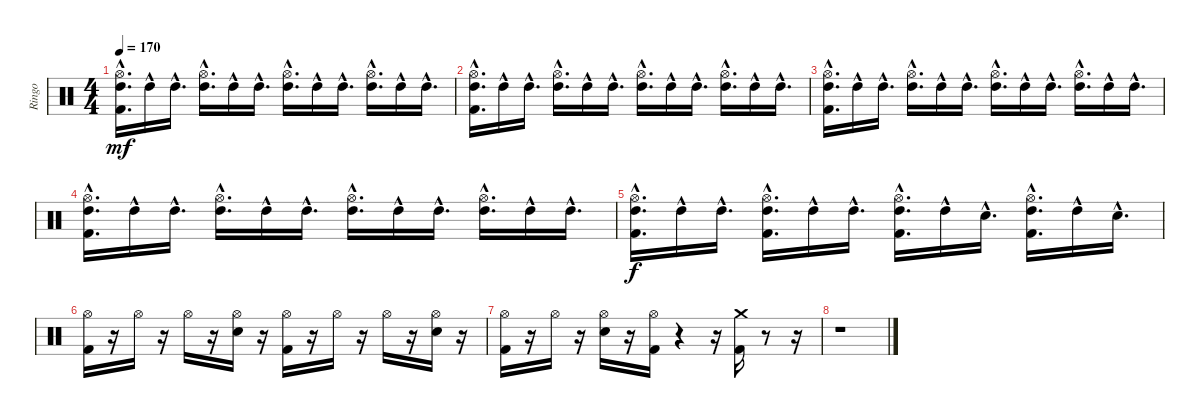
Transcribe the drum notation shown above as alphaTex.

\track ("Ringo" "Ringo") {instrument percussion}
\staff {score}
\articulation defaults
\ts (4 4)
\tempo 170
\clef neutral
\ks c
("High Tom (hit)"{hac} "Kick (hit) 2"{hac} "Hi-Hat (open)"{hac}).16{d dy mf} "High Tom (hit)"{hac}.16 "High Tom (hit)"{hac}.16{d} ("High Tom (hit)"{hac} "Hi-Hat (open)"{hac}).16{d} "High Tom (hit)"{hac}.16 "High Tom (hit)"{hac}.16{d} ("High Tom (hit)"{hac} "Hi-Hat (open)"{hac}).16{d} "High Tom (hit)"{hac}.16 "High Tom (hit)"{hac}.16{d} ("High Tom (hit)"{hac} "Hi-Hat (open)"{hac}).16{d} "High Tom (hit)"{hac}.16 "High Tom (hit)"{hac}.16{d} |
("High Tom (hit)"{hac} "Kick (hit) 2"{hac} "Hi-Hat (open)"{hac}).16{d} "High Tom (hit)"{hac}.16 "High Tom (hit)"{hac}.16{d} ("High Tom (hit)"{hac} "Hi-Hat (open)"{hac}).16{d} "High Tom (hit)"{hac}.16 "High Tom (hit)"{hac}.16{d} ("High Tom (hit)"{hac} "Hi-Hat (open)"{hac}).16{d} "High Tom (hit)"{hac}.16 "High Tom (hit)"{hac}.16{d} ("High Tom (hit)"{hac} "Hi-Hat (open)"{hac}).16{d} "High Tom (hit)"{hac}.16 "High Tom (hit)"{hac}.16{d} |
("High Tom (hit)"{hac} "Kick (hit) 2"{hac} "Hi-Hat (open)"{hac}).16{d} "High Tom (hit)"{hac}.16 "High Tom (hit)"{hac}.16{d} ("High Tom (hit)"{hac} "Hi-Hat (open)"{hac}).16{d} "High Tom (hit)"{hac}.16 "High Tom (hit)"{hac}.16{d} ("High Tom (hit)"{hac} "Hi-Hat (open)"{hac}).16{d} "High Tom (hit)"{hac}.16 "High Tom (hit)"{hac}.16{d} ("High Tom (hit)"{hac} "Hi-Hat (open)"{hac}).16{d} "High Tom (hit)"{hac}.16 "High Tom (hit)"{hac}.16{d} |
("High Tom (hit)"{hac} "Kick (hit) 2"{hac} "Hi-Hat (open)"{hac}).16{d} "High Tom (hit)"{hac}.16 "High Tom (hit)"{hac}.16{d} ("High Tom (hit)"{hac} "Hi-Hat (open)"{hac}).16{d} "High Tom (hit)"{hac}.16 "High Tom (hit)"{hac}.16{d} ("High Tom (hit)"{hac} "Hi-Hat (open)"{hac}).16{d} "High Tom (hit)"{hac}.16 "High Tom (hit)"{hac}.16{d} ("High Tom (hit)"{hac} "Hi-Hat (open)"{hac}).16{d} "High Tom (hit)"{hac}.16 "High Tom (hit)"{hac}.16{d} |
("High Tom (hit)"{hac} "Kick (hit) 2"{hac} "Hi-Hat (open)"{hac}).16{d dy f} "High Tom (hit)"{hac}.16 "High Tom (hit)"{hac}.16{d} ("High Tom (hit)"{hac} "Hi-Hat (open)"{hac} "Kick (hit) 2"{hac}).16{d} "High Tom (hit)"{hac}.16 "High Tom (hit)"{hac}.16{d} ("High Tom (hit)"{hac} "Hi-Hat (open)"{hac} "Kick (hit) 2"{hac}).16{d} "High Tom (hit)"{hac}.16 "Snare (hit) 2"{hac}.16{d} ("High Tom (hit)"{hac} "Hi-Hat (open)"{hac} "Kick (hit) 2"{hac}).16{d} "High Tom (hit)"{hac}.16 "Snare (hit) 2"{hac}.16{d} |
("Hi-Hat (open)" "Kick (hit) 2").16 r.16 "Hi-Hat (open)".16 r.16 "Hi-Hat (open)".16 r.16 ("Hi-Hat (open)" "Snare (hit) 2").16 r.16 ("Hi-Hat (open)" "Kick (hit) 2").16 r.16 "Hi-Hat (open)".16 r.16 "Hi-Hat (open)".16 r.16 ("Hi-Hat (open)" "Snare (hit) 2").16 r.16 |
("Hi-Hat (open)" "Kick (hit) 2").16 r.16 "Hi-Hat (open)".16 r.16 ("Hi-Hat (open)" "Snare (hit) 2").16 r.16 ("Hi-Hat (open)" "Kick (hit) 2").16 r.4 r.16 ("Crash medium (hit)" "Kick (hit) 2").16 r.8 r.16 |
r.1
